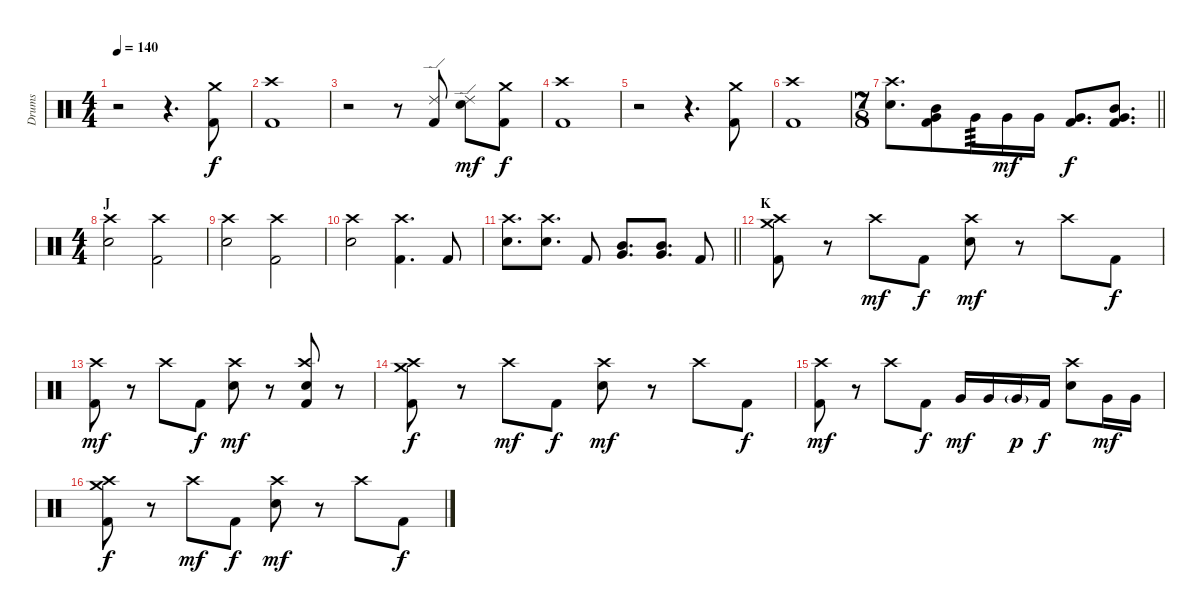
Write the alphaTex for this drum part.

\track ("Drums" "Drums") {instrument percussion}
\staff {score}
\articulation defaults
\ts (4 4)
\tempo 140
\clef neutral
\ks c
r.2{dy f} r.4{d} ("Crash medium (hit)" "Kick (hit) 2").8 |
("Crash high (hit)" "Kick (hit) 2").1 |
r.2 r.8 ("Ride (edge) 2" "Kick (hit) 2").8 ("Ride (edge) 2" "Snare (hit) 2").8{dy mf} ("Crash medium (hit)" "Kick (hit) 2").8{dy f} |
("Crash high (hit)" "Kick (hit) 2").1 |
r.2 r.4{d} ("Crash medium (hit)" "Kick (hit) 2").8 |
("Crash high (hit)" "Kick (hit) 2").1 |
\ts (7 8)
\barLineRight lightlight
("Crash high (hit)" "Snare (hit) 2").8{d} ("Mid Tom (hit)" "Very Low Tom (hit)" "Kick (hit) 2").8{bu 60} "Very Low Tom (hit)".16{tp 3} "Very Low Tom (hit)".16{dy mf} "Very Low Tom (hit)".16 ("Very Low Tom (hit)" "Kick (hit) 2").8{d dy f} ("Mid Tom (hit)" "Very Low Tom (hit)" "Kick (hit) 2").8{d bu 60} |
\ts (4 4)
\section ("" "J")
("Crash high (hit)" "Snare (hit) 2").2 ("Crash high (hit)" "Kick (hit) 2").2 |
("Crash high (hit)" "Snare (hit) 2").2 ("Crash high (hit)" "Kick (hit) 2").2 |
("Crash high (hit)" "Snare (hit) 2").2 ("Crash high (hit)" "Kick (hit) 2").4{d} "Kick (hit) 2".8 |
\barLineRight lightlight
("Crash high (hit)" "Snare (hit) 2").8{d} ("Crash high (hit)" "Snare (hit) 2").8{d} "Kick (hit) 2".8 ("Mid Tom (hit)" "Very Low Tom (hit)").8{d bu 60} ("Mid Tom (hit)" "Very Low Tom (hit)").8{d bu 60} "Kick (hit) 2".8 |
\section ("" "K")
("Crash high (hit)" "Crash medium (hit)" "Kick (hit) 2").8 r.8 "Crash high (hit)".8{dy mf} "Kick (hit) 2".8{dy f} ("Crash high (hit)" "Snare (hit) 2").8{dy mf} r.8 "Crash high (hit)".8 "Kick (hit) 2".8{dy f} |
("Crash high (hit)" "Kick (hit) 2").8{dy mf} r.8 "Crash high (hit)".8 "Kick (hit) 2".8{dy f} ("Crash high (hit)" "Snare (hit) 2").8{dy mf} r.8 ("Crash high (hit)" "Snare (hit) 2" "Kick (hit) 2").8 r.8 |
("Crash high (hit)" "Crash medium (hit)" "Kick (hit) 2").8{dy f} r.8 "Crash high (hit)".8{dy mf} "Kick (hit) 2".8{dy f} ("Crash high (hit)" "Snare (hit) 2").8{dy mf} r.8 "Crash high (hit)".8 "Kick (hit) 2".8{dy f} |
("Crash high (hit)" "Kick (hit) 2").8{dy mf} r.8 "Crash high (hit)".8 "Kick (hit) 2".8{dy f} "Very Low Tom (hit)".16{dy mf} "Very Low Tom (hit)".16 "Very Low Tom (hit)"{g}.16{dy p} "Kick (hit) 2".16{dy f} ("Crash high (hit)" "Snare (hit) 2").8 "Very Low Tom (hit)".16{dy mf} "Very Low Tom (hit)".16 |
("Crash high (hit)" "Crash medium (hit)" "Kick (hit) 2").8{dy f} r.8 "Crash high (hit)".8{dy mf} "Kick (hit) 2".8{dy f} ("Crash high (hit)" "Snare (hit) 2").8{dy mf} r.8 "Crash high (hit)".8 "Kick (hit) 2".8{dy f}
